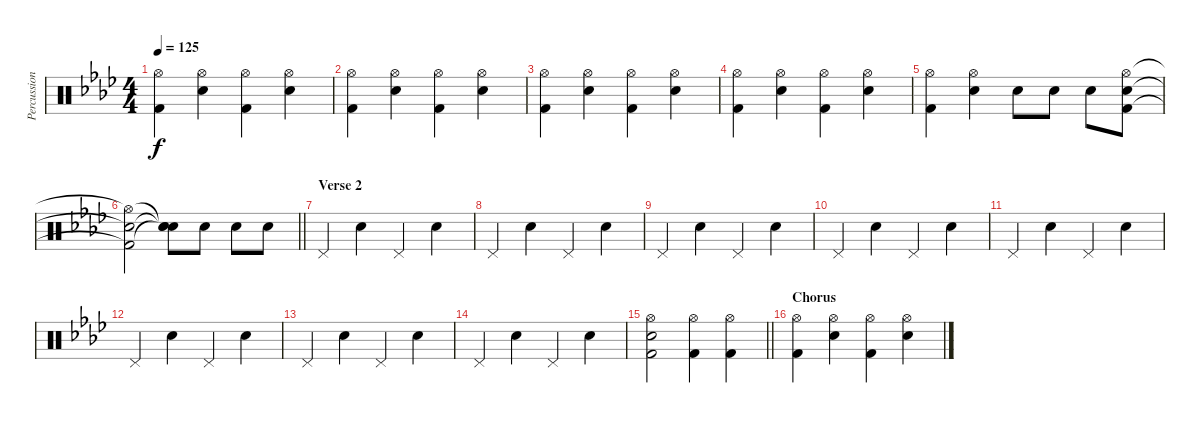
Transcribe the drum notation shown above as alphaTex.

\track ("Percussion" "Percussion") {instrument percussion}
\staff {score}
\articulation defaults
\ts (4 4)
\tempo 125
\clef neutral
\ks fminor
("Hi-Hat (open)" "Kick (hit) 2").4{dy f} ("Hi-Hat (open)" "Snare (hit) 2").4 ("Hi-Hat (open)" "Kick (hit) 2").4 ("Hi-Hat (open)" "Snare (hit) 2").4 |
("Hi-Hat (open)" "Kick (hit) 2").4 ("Hi-Hat (open)" "Snare (hit) 2").4 ("Hi-Hat (open)" "Kick (hit) 2").4 ("Hi-Hat (open)" "Snare (hit) 2").4 |
("Hi-Hat (open)" "Kick (hit) 2").4 ("Hi-Hat (open)" "Snare (hit) 2").4 ("Hi-Hat (open)" "Kick (hit) 2").4 ("Hi-Hat (open)" "Snare (hit) 2").4 |
("Hi-Hat (open)" "Kick (hit) 2").4 ("Hi-Hat (open)" "Snare (hit) 2").4 ("Hi-Hat (open)" "Kick (hit) 2").4 ("Hi-Hat (open)" "Snare (hit) 2").4 |
("Hi-Hat (open)" "Kick (hit) 2").4 ("Hi-Hat (open)" "Snare (hit) 2").4 "Snare (hit) 2".8 "Snare (hit) 2".8 "Snare (hit) 2".8 ("Hi-Hat (open)" "Snare (hit) 2" "Kick (hit) 2").8 |
\barLineRight lightlight
("Hi-Hat (open)"{t} "Snare (hit)"{t} "Kick (hit) 2"{t}).2 ("Snare (hit)"{t} "Snare (hit)"{t} "Snare (hit)"{t}).8 "Snare (hit) 2".8 "Snare (hit) 2".8 "Snare (hit) 2".8 |
\section ("" "Verse 2")
"Pedal Hi-Hat (hit)".4 "Snare (hit) 2".4 "Pedal Hi-Hat (hit)".4 "Snare (hit) 2".4 |
"Pedal Hi-Hat (hit)".4 "Snare (hit) 2".4 "Pedal Hi-Hat (hit)".4 "Snare (hit) 2".4 |
"Pedal Hi-Hat (hit)".4 "Snare (hit) 2".4 "Pedal Hi-Hat (hit)".4 "Snare (hit) 2".4 |
"Pedal Hi-Hat (hit)".4 "Snare (hit) 2".4 "Pedal Hi-Hat (hit)".4 "Snare (hit) 2".4 |
"Pedal Hi-Hat (hit)".4 "Snare (hit) 2".4 "Pedal Hi-Hat (hit)".4 "Snare (hit) 2".4 |
"Pedal Hi-Hat (hit)".4 "Snare (hit) 2".4 "Pedal Hi-Hat (hit)".4 "Snare (hit) 2".4 |
"Pedal Hi-Hat (hit)".4 "Snare (hit) 2".4 "Pedal Hi-Hat (hit)".4 "Snare (hit) 2".4 |
"Pedal Hi-Hat (hit)".4 "Snare (hit) 2".4 "Pedal Hi-Hat (hit)".4 "Snare (hit) 2".4 |
\barLineRight lightlight
("Hi-Hat (open)" "Snare (hit) 2" "Kick (hit) 2").2 ("Hi-Hat (open)" "Kick (hit) 2").4 ("Hi-Hat (open)" "Kick (hit) 2").4 |
\section ("" "Chorus")
("Hi-Hat (open)" "Kick (hit) 2").4 ("Hi-Hat (open)" "Snare (hit) 2").4 ("Hi-Hat (open)" "Kick (hit) 2").4 ("Hi-Hat (open)" "Snare (hit) 2").4
